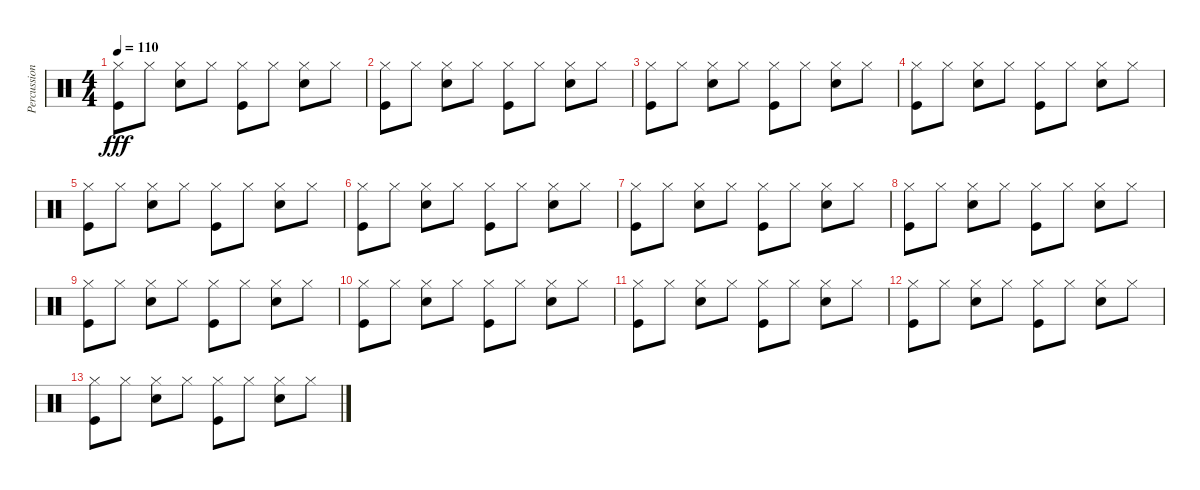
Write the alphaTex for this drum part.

\track ("Percussion" "Percussion") {instrument percussion}
\staff {score}
\articulation defaults
\ts (4 4)
\tempo 110
\clef neutral
\ks c
("Hi-Hat (closed)" "Kick (hit)").8{dy fff} "Hi-Hat (closed)".8 ("Hi-Hat (closed)" "Snare (hit) 2").8 "Hi-Hat (closed)".8 ("Hi-Hat (closed)" "Kick (hit)").8 "Hi-Hat (closed)".8 ("Hi-Hat (closed)" "Snare (hit) 2").8 "Hi-Hat (closed)".8 |
("Hi-Hat (closed)" "Kick (hit)").8 "Hi-Hat (closed)".8 ("Hi-Hat (closed)" "Snare (hit) 2").8 "Hi-Hat (closed)".8 ("Hi-Hat (closed)" "Kick (hit)").8 "Hi-Hat (closed)".8 ("Hi-Hat (closed)" "Snare (hit) 2").8 "Hi-Hat (closed)".8 |
("Hi-Hat (closed)" "Kick (hit)").8 "Hi-Hat (closed)".8 ("Hi-Hat (closed)" "Snare (hit) 2").8 "Hi-Hat (closed)".8 ("Hi-Hat (closed)" "Kick (hit)").8 "Hi-Hat (closed)".8 ("Hi-Hat (closed)" "Snare (hit) 2").8 "Hi-Hat (closed)".8 |
("Hi-Hat (closed)" "Kick (hit)").8 "Hi-Hat (closed)".8 ("Hi-Hat (closed)" "Snare (hit) 2").8 "Hi-Hat (closed)".8 ("Hi-Hat (closed)" "Kick (hit)").8 "Hi-Hat (closed)".8 ("Hi-Hat (closed)" "Snare (hit) 2").8 "Hi-Hat (closed)".8 |
("Hi-Hat (closed)" "Kick (hit)").8 "Hi-Hat (closed)".8 ("Hi-Hat (closed)" "Snare (hit) 2").8 "Hi-Hat (closed)".8 ("Hi-Hat (closed)" "Kick (hit)").8 "Hi-Hat (closed)".8 ("Hi-Hat (closed)" "Snare (hit) 2").8 "Hi-Hat (closed)".8 |
("Hi-Hat (closed)" "Kick (hit)").8 "Hi-Hat (closed)".8 ("Hi-Hat (closed)" "Snare (hit) 2").8 "Hi-Hat (closed)".8 ("Hi-Hat (closed)" "Kick (hit)").8 "Hi-Hat (closed)".8 ("Hi-Hat (closed)" "Snare (hit) 2").8 "Hi-Hat (closed)".8 |
("Hi-Hat (closed)" "Kick (hit)").8 "Hi-Hat (closed)".8 ("Hi-Hat (closed)" "Snare (hit) 2").8 "Hi-Hat (closed)".8 ("Hi-Hat (closed)" "Kick (hit)").8 "Hi-Hat (closed)".8 ("Hi-Hat (closed)" "Snare (hit) 2").8 "Hi-Hat (closed)".8 |
("Hi-Hat (closed)" "Kick (hit)").8 "Hi-Hat (closed)".8 ("Hi-Hat (closed)" "Snare (hit) 2").8 "Hi-Hat (closed)".8 ("Hi-Hat (closed)" "Kick (hit)").8 "Hi-Hat (closed)".8 ("Hi-Hat (closed)" "Snare (hit) 2").8 "Hi-Hat (closed)".8 |
("Hi-Hat (closed)" "Kick (hit)").8 "Hi-Hat (closed)".8 ("Hi-Hat (closed)" "Snare (hit) 2").8 "Hi-Hat (closed)".8 ("Hi-Hat (closed)" "Kick (hit)").8 "Hi-Hat (closed)".8 ("Hi-Hat (closed)" "Snare (hit) 2").8 "Hi-Hat (closed)".8 |
("Hi-Hat (closed)" "Kick (hit)").8 "Hi-Hat (closed)".8 ("Hi-Hat (closed)" "Snare (hit) 2").8 "Hi-Hat (closed)".8 ("Hi-Hat (closed)" "Kick (hit)").8 "Hi-Hat (closed)".8 ("Hi-Hat (closed)" "Snare (hit) 2").8 "Hi-Hat (closed)".8 |
("Hi-Hat (closed)" "Kick (hit)").8 "Hi-Hat (closed)".8 ("Hi-Hat (closed)" "Snare (hit) 2").8 "Hi-Hat (closed)".8 ("Hi-Hat (closed)" "Kick (hit)").8 "Hi-Hat (closed)".8 ("Hi-Hat (closed)" "Snare (hit) 2").8 "Hi-Hat (closed)".8 |
("Hi-Hat (closed)" "Kick (hit)").8 "Hi-Hat (closed)".8 ("Hi-Hat (closed)" "Snare (hit) 2").8 "Hi-Hat (closed)".8 ("Hi-Hat (closed)" "Kick (hit)").8 "Hi-Hat (closed)".8 ("Hi-Hat (closed)" "Snare (hit) 2").8 "Hi-Hat (closed)".8 |
("Hi-Hat (closed)" "Kick (hit)").8{volume 0} "Hi-Hat (closed)".8 ("Hi-Hat (closed)" "Snare (hit) 2").8 "Hi-Hat (closed)".8 ("Hi-Hat (closed)" "Kick (hit)").8 "Hi-Hat (closed)".8 ("Hi-Hat (closed)" "Snare (hit) 2").8 "Hi-Hat (closed)".8
